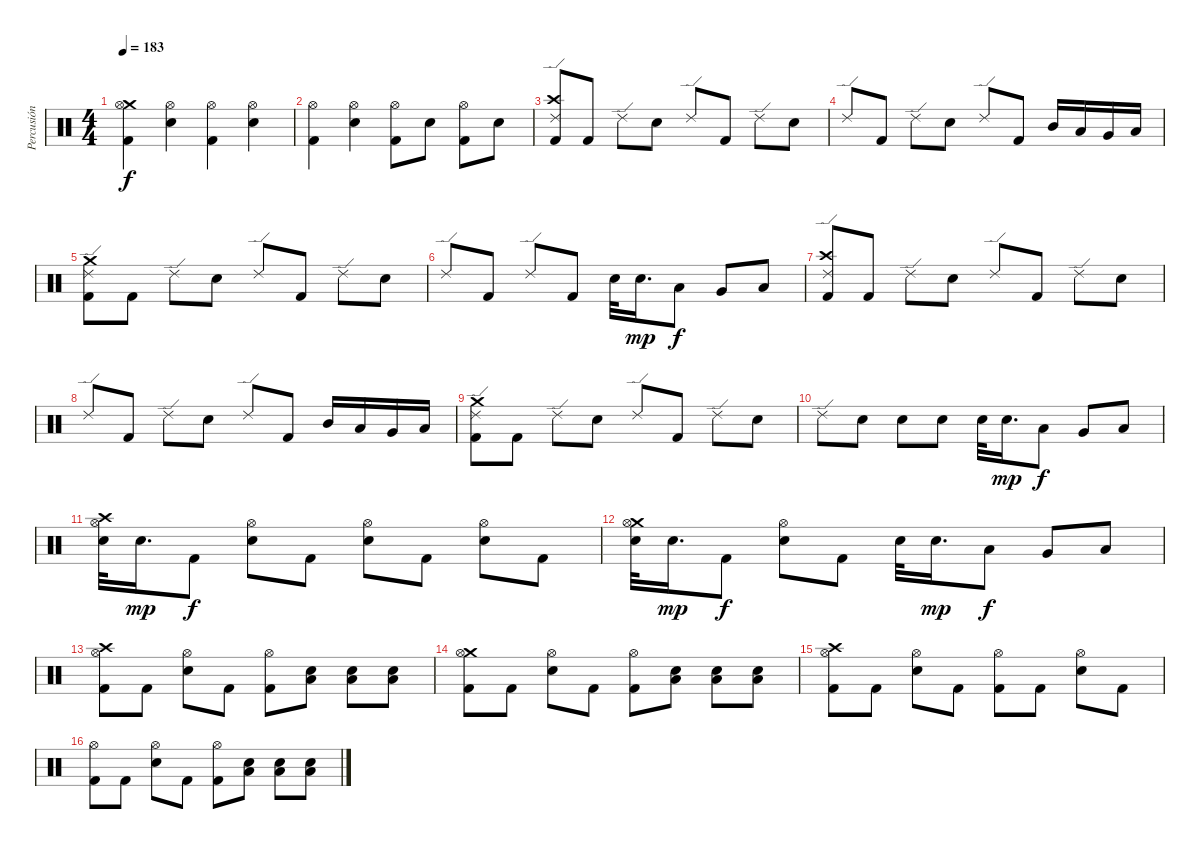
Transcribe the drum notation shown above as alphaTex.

\track ("Percusión" "Percusión") {instrument percussion}
\staff {score}
\articulation defaults
\ts (4 4)
\tempo 183
\clef neutral
\ks c
("Crash medium (hit)" "Hi-Hat (open)" "Kick (hit) 2").4{dy f} ("Hi-Hat (open)" "Electric Snare (hit)").4 ("Hi-Hat (open)" "Kick (hit) 2").4 ("Hi-Hat (open)" "Electric Snare (hit)").4 |
("Hi-Hat (open)" "Kick (hit) 2").4 ("Hi-Hat (open)" "Electric Snare (hit)").4 ("Hi-Hat (open)" "Kick (hit) 2").8 "Electric Snare (hit)".8 ("Hi-Hat (open)" "Kick (hit) 2").8 "Electric Snare (hit)".8 |
("Crash high (hit)" "Ride (edge) 2" "Kick (hit) 2").8 "Kick (hit) 2".8 "Ride (edge) 2".8 "Electric Snare (hit)".8 "Ride (edge) 2".8 "Kick (hit) 2".8 "Ride (edge) 2".8 "Electric Snare (hit)".8 |
"Ride (edge) 2".8 "Kick (hit) 2".8 "Ride (edge) 2".8 "Electric Snare (hit)".8 "Ride (edge) 2".8 "Kick (hit) 2".8 "Mid Tom (hit)".16 "Low Tom (hit)".16 "Very Low Tom (hit)".16 "Low Floor Tom (hit)".16 |
("Crash medium (hit)" "Ride (edge) 2" "Kick (hit) 2").8 "Kick (hit) 2".8 "Ride (edge) 2".8 "Electric Snare (hit)".8 "Ride (edge) 2".8 "Kick (hit) 2".8 "Ride (edge) 2".8 "Electric Snare (hit)".8 |
"Ride (edge) 2".8 "Kick (hit) 2".8 "Ride (edge) 2".8 "Kick (hit) 2".8 "Electric Snare (hit)".32 "Electric Snare (hit)".16{d dy mp} "Low Tom (hit)".8{dy f} "Very Low Tom (hit)".8 "Low Floor Tom (hit)".8 |
("Crash high (hit)" "Ride (edge) 2" "Kick (hit) 2").8 "Kick (hit) 2".8 "Ride (edge) 2".8 "Electric Snare (hit)".8 "Ride (edge) 2".8 "Kick (hit) 2".8 "Ride (edge) 2".8 "Electric Snare (hit)".8 |
"Ride (edge) 2".8 "Kick (hit) 2".8 "Ride (edge) 2".8 "Electric Snare (hit)".8 "Ride (edge) 2".8 "Kick (hit) 2".8 "Mid Tom (hit)".16 "Low Tom (hit)".16 "Very Low Tom (hit)".16 "Low Floor Tom (hit)".16 |
("Crash medium (hit)" "Ride (edge) 2" "Kick (hit) 2").8 "Kick (hit) 2".8 "Ride (edge) 2".8 "Electric Snare (hit)".8 "Ride (edge) 2".8 "Kick (hit) 2".8 "Ride (edge) 2".8 "Electric Snare (hit)".8 |
"Ride (edge) 2".8 "Electric Snare (hit)".8 "Electric Snare (hit)".8 "Electric Snare (hit)".8 "Electric Snare (hit)".32 "Electric Snare (hit)".16{d dy mp} "Low Tom (hit)".8{dy f} "Very Low Tom (hit)".8 "Low Floor Tom (hit)".8 |
("Crash high (hit)" "Hi-Hat (open)" "Electric Snare (hit)").32 "Electric Snare (hit)".16{d dy mp} "Kick (hit) 2".8{dy f} ("Hi-Hat (open)" "Electric Snare (hit)").8 "Kick (hit) 2".8 ("Hi-Hat (open)" "Electric Snare (hit)").8 "Kick (hit) 2".8 ("Hi-Hat (open)" "Electric Snare (hit)").8 "Kick (hit) 2".8 |
("Crash medium (hit)" "Hi-Hat (open)" "Electric Snare (hit)").32 "Electric Snare (hit)".16{d dy mp} "Kick (hit) 2".8{dy f} ("Hi-Hat (open)" "Electric Snare (hit)").8 "Kick (hit) 2".8 "Electric Snare (hit)".32 "Electric Snare (hit)".16{d dy mp} "Low Tom (hit)".8{dy f} "Very Low Tom (hit)".8 "Low Floor Tom (hit)".8 |
("Crash high (hit)" "Hi-Hat (open)" "Kick (hit) 2").8 "Kick (hit) 2".8 ("Hi-Hat (open)" "Electric Snare (hit)").8 "Kick (hit) 2".8 ("Hi-Hat (open)" "Kick (hit) 2").8 ("Low Floor Tom (hit)" "Electric Snare (hit)").8 ("Low Floor Tom (hit)" "Electric Snare (hit)").8 ("Low Floor Tom (hit)" "Electric Snare (hit)").8 |
("Crash medium (hit)" "Hi-Hat (open)" "Kick (hit) 2").8 "Kick (hit) 2".8 ("Hi-Hat (open)" "Electric Snare (hit)").8 "Kick (hit) 2".8 ("Hi-Hat (open)" "Kick (hit) 2").8 ("Low Floor Tom (hit)" "Electric Snare (hit)").8 ("Low Floor Tom (hit)" "Electric Snare (hit)").8 ("Low Floor Tom (hit)" "Electric Snare (hit)").8 |
("Crash high (hit)" "Hi-Hat (open)" "Kick (hit) 2").8 "Kick (hit) 2".8 ("Hi-Hat (open)" "Electric Snare (hit)").8 "Kick (hit) 2".8 ("Hi-Hat (open)" "Kick (hit) 2").8 "Kick (hit) 2".8 ("Hi-Hat (open)" "Electric Snare (hit)").8 "Kick (hit) 2".8 |
("Hi-Hat (open)" "Kick (hit) 2").8 "Kick (hit) 2".8 ("Hi-Hat (open)" "Electric Snare (hit)").8 "Kick (hit) 2".8 ("Hi-Hat (open)" "Kick (hit) 2").8 ("Low Floor Tom (hit)" "Electric Snare (hit)").8 ("Low Floor Tom (hit)" "Electric Snare (hit)").8 ("Low Floor Tom (hit)" "Electric Snare (hit)").8
